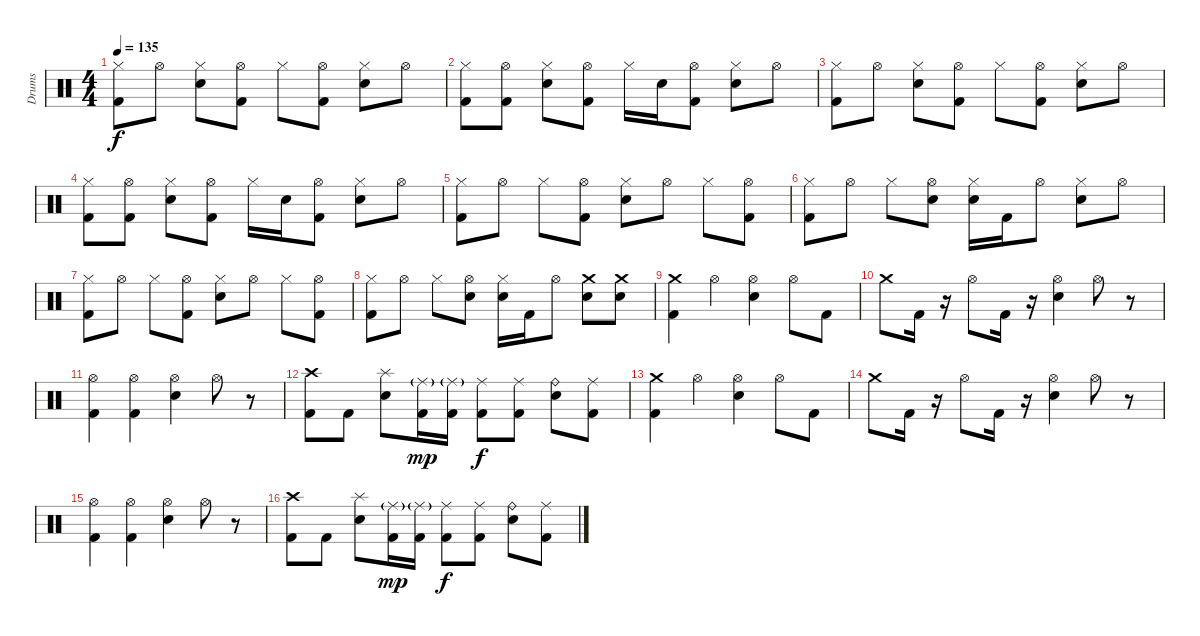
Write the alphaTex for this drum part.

\track ("Drums" "Drums") {instrument percussion}
\staff {score}
\articulation defaults
\ts (4 4)
\tempo 135
\clef neutral
\ks c
("Hi-Hat (closed)" "Kick (hit) 2").8{dy f} "Hi-Hat (open)".8 ("Hi-Hat (closed)" "Electric Snare (hit)").8 ("Hi-Hat (open)" "Kick (hit) 2").8 "Hi-Hat (closed)".8 ("Hi-Hat (open)" "Kick (hit) 2").8 ("Hi-Hat (closed)" "Electric Snare (hit)").8 "Hi-Hat (open)".8 |
("Hi-Hat (closed)" "Kick (hit) 2").8 ("Hi-Hat (open)" "Kick (hit) 2").8 ("Hi-Hat (closed)" "Electric Snare (hit)").8 ("Hi-Hat (open)" "Kick (hit) 2").8 "Hi-Hat (closed)".16 "Electric Snare (hit)".16 ("Hi-Hat (open)" "Kick (hit) 2").8 ("Hi-Hat (closed)" "Electric Snare (hit)").8 "Hi-Hat (open)".8 |
("Hi-Hat (closed)" "Kick (hit) 2").8 "Hi-Hat (open)".8 ("Hi-Hat (closed)" "Electric Snare (hit)").8 ("Hi-Hat (open)" "Kick (hit) 2").8 "Hi-Hat (closed)".8 ("Hi-Hat (open)" "Kick (hit) 2").8 ("Hi-Hat (closed)" "Electric Snare (hit)").8 "Hi-Hat (open)".8 |
("Hi-Hat (closed)" "Kick (hit) 2").8 ("Hi-Hat (open)" "Kick (hit) 2").8 ("Hi-Hat (closed)" "Electric Snare (hit)").8 ("Hi-Hat (open)" "Kick (hit) 2").8 "Hi-Hat (closed)".16 "Electric Snare (hit)".16 ("Hi-Hat (open)" "Kick (hit) 2").8 ("Hi-Hat (closed)" "Electric Snare (hit)").8 "Hi-Hat (open)".8 |
("Hi-Hat (closed)" "Kick (hit) 2").8 "Hi-Hat (open)".8 "Hi-Hat (closed)".8 ("Hi-Hat (open)" "Kick (hit) 2").8 ("Hi-Hat (closed)" "Electric Snare (hit)").8 "Hi-Hat (open)".8 "Hi-Hat (closed)".8 ("Hi-Hat (open)" "Kick (hit) 2").8 |
("Hi-Hat (closed)" "Kick (hit) 2").8 "Hi-Hat (open)".8 "Hi-Hat (closed)".8 ("Hi-Hat (open)" "Electric Snare (hit)").8 ("Hi-Hat (closed)" "Electric Snare (hit)").16 "Kick (hit) 2".16 "Hi-Hat (open)".8 ("Hi-Hat (closed)" "Electric Snare (hit)").8 "Hi-Hat (open)".8 |
("Hi-Hat (closed)" "Kick (hit) 2").8 "Hi-Hat (open)".8 "Hi-Hat (closed)".8 ("Hi-Hat (open)" "Kick (hit) 2").8 ("Hi-Hat (closed)" "Electric Snare (hit)").8 "Hi-Hat (open)".8 "Hi-Hat (closed)".8 ("Hi-Hat (open)" "Kick (hit) 2").8 |
("Hi-Hat (closed)" "Kick (hit) 2").8 "Hi-Hat (open)".8 "Hi-Hat (closed)".8 ("Hi-Hat (open)" "Electric Snare (hit)").8 ("Hi-Hat (closed)" "Electric Snare (hit)").16 "Kick (hit) 2".16 "Hi-Hat (open)".8 ("Crash medium (hit)" "Electric Snare (hit)").8 ("Crash medium (hit)" "Electric Snare (hit)").8 |
("Crash medium (hit)" "Kick (hit) 2").4 "Hi-Hat (open)".4 ("Hi-Hat (open)" "Electric Snare (hit)").4 "Hi-Hat (open)".8 "Kick (hit) 2".8 |
"Crash medium (hit)".8 "Kick (hit) 2".16 r.16 "Hi-Hat (open)".8 "Kick (hit) 2".16 r.16 ("Hi-Hat (open)" "Electric Snare (hit)").4 "Hi-Hat (open)".8 r.8 |
("Hi-Hat (open)" "Kick (hit) 2").4 ("Hi-Hat (open)" "Kick (hit) 2").4 ("Hi-Hat (open)" "Electric Snare (hit)").4 "Hi-Hat (open)".8 r.8 |
("Crash high (hit)" "Kick (hit) 2").8 "Kick (hit) 2".8 ("Splash (hit)" "Electric Snare (hit)").8 ("Ride (middle)"{g} "Kick (hit) 2").16{dy mp} ("Ride (middle)"{g} "Kick (hit) 2").16 ("Ride (middle)" "Kick (hit) 2").8{dy f} ("Ride (middle)" "Kick (hit) 2").8 ("Ride (bell)" "Electric Snare (hit)").8 ("Ride (middle)" "Kick (hit) 2").8 |
("Crash medium (hit)" "Kick (hit) 2").4 "Hi-Hat (open)".4 ("Hi-Hat (open)" "Electric Snare (hit)").4 "Hi-Hat (open)".8 "Kick (hit) 2".8 |
"Crash medium (hit)".8 "Kick (hit) 2".16 r.16 "Hi-Hat (open)".8 "Kick (hit) 2".16 r.16 ("Hi-Hat (open)" "Electric Snare (hit)").4 "Hi-Hat (open)".8 r.8 |
("Hi-Hat (open)" "Kick (hit) 2").4 ("Hi-Hat (open)" "Kick (hit) 2").4 ("Hi-Hat (open)" "Electric Snare (hit)").4 "Hi-Hat (open)".8 r.8 |
("Crash high (hit)" "Kick (hit) 2").8 "Kick (hit) 2".8 ("Splash (hit)" "Electric Snare (hit)").8 ("Ride (middle)"{g} "Kick (hit) 2").16{dy mp} ("Ride (middle)"{g} "Kick (hit) 2").16 ("Ride (middle)" "Kick (hit) 2").8{dy f} ("Ride (middle)" "Kick (hit) 2").8 ("Ride (bell)" "Electric Snare (hit)").8 ("Ride (middle)" "Kick (hit) 2").8
